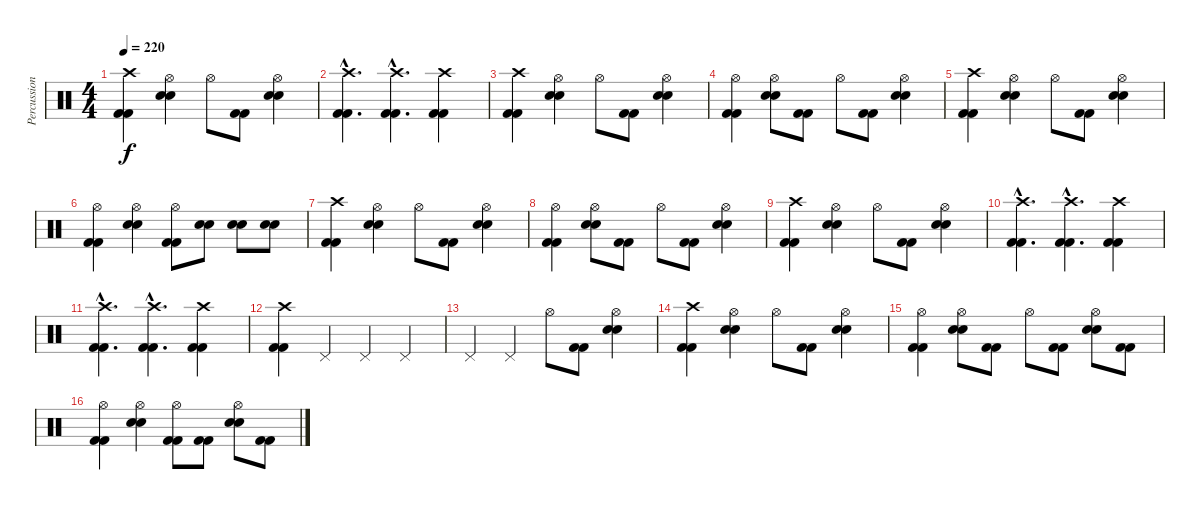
\track ("Percussion" "Percussion") {instrument percussion}
\staff {score}
\articulation defaults
\ts (4 4)
\tempo 220
\clef neutral
\ks c
("Crash high (hit)" "Kick (hit) 2" "Kick (hit) 2").4{dy f} ("Hi-Hat (open)" "Electric Snare (hit)" "Electric Snare (hit)").4 "Hi-Hat (open)".8 ("Kick (hit) 2" "Kick (hit) 2").8 ("Hi-Hat (open)" "Electric Snare (hit)" "Electric Snare (hit)").4 |
("Crash high (hit)"{hac} "Kick (hit) 2"{hac} "Kick (hit) 2"{hac}).4{d} ("Crash high (hit)"{hac} "Kick (hit) 2"{hac} "Kick (hit) 2"{hac}).4{d} ("Crash high (hit)" "Kick (hit) 2" "Kick (hit) 2").4 |
("Crash high (hit)" "Kick (hit) 2" "Kick (hit) 2").4 ("Hi-Hat (open)" "Electric Snare (hit)" "Electric Snare (hit)").4 "Hi-Hat (open)".8 ("Kick (hit) 2" "Kick (hit) 2").8 ("Hi-Hat (open)" "Electric Snare (hit)" "Electric Snare (hit)").4 |
("Hi-Hat (open)" "Kick (hit) 2" "Kick (hit) 2").4 ("Hi-Hat (open)" "Electric Snare (hit)" "Electric Snare (hit)").8 ("Kick (hit) 2" "Kick (hit) 2").8 "Hi-Hat (open)".8 ("Kick (hit) 2" "Kick (hit) 2").8 ("Hi-Hat (open)" "Electric Snare (hit)" "Electric Snare (hit)").4 |
("Crash high (hit)" "Kick (hit) 2" "Kick (hit) 2").4 ("Hi-Hat (open)" "Electric Snare (hit)" "Electric Snare (hit)").4 "Hi-Hat (open)".8 ("Kick (hit) 2" "Kick (hit) 2").8 ("Hi-Hat (open)" "Electric Snare (hit)" "Electric Snare (hit)").4 |
("Hi-Hat (open)" "Kick (hit) 2" "Kick (hit) 2").4 ("Hi-Hat (open)" "Electric Snare (hit)" "Electric Snare (hit)").4 ("Hi-Hat (open)" "Kick (hit) 2" "Kick (hit) 2").8 ("Electric Snare (hit)" "Electric Snare (hit)").8 ("Electric Snare (hit)" "Electric Snare (hit)").8 ("Electric Snare (hit)" "Electric Snare (hit)").8 |
("Crash high (hit)" "Kick (hit) 2" "Kick (hit) 2").4 ("Hi-Hat (open)" "Electric Snare (hit)" "Electric Snare (hit)").4 "Hi-Hat (open)".8 ("Kick (hit) 2" "Kick (hit) 2").8 ("Hi-Hat (open)" "Electric Snare (hit)" "Electric Snare (hit)").4 |
("Hi-Hat (open)" "Kick (hit) 2" "Kick (hit) 2").4 ("Hi-Hat (open)" "Electric Snare (hit)" "Electric Snare (hit)").8 ("Kick (hit) 2" "Kick (hit) 2").8 "Hi-Hat (open)".8 ("Kick (hit) 2" "Kick (hit) 2").8 ("Hi-Hat (open)" "Electric Snare (hit)" "Electric Snare (hit)").4 |
("Crash high (hit)" "Kick (hit) 2" "Kick (hit) 2").4 ("Hi-Hat (open)" "Electric Snare (hit)" "Electric Snare (hit)").4 "Hi-Hat (open)".8 ("Kick (hit) 2" "Kick (hit) 2").8 ("Hi-Hat (open)" "Electric Snare (hit)" "Electric Snare (hit)").4 |
("Crash high (hit)"{hac} "Kick (hit) 2"{hac} "Kick (hit) 2"{hac}).4{d} ("Crash high (hit)"{hac} "Kick (hit) 2"{hac} "Kick (hit) 2"{hac}).4{d} ("Crash high (hit)" "Kick (hit) 2" "Kick (hit) 2").4 |
("Crash high (hit)"{hac} "Kick (hit) 2"{hac} "Kick (hit) 2"{hac}).4{d} ("Crash high (hit)"{hac} "Kick (hit) 2"{hac} "Kick (hit) 2"{hac}).4{d} ("Crash high (hit)" "Kick (hit) 2" "Kick (hit) 2").4 |
("Crash high (hit)" "Kick (hit) 2" "Kick (hit) 2").4 "Pedal Hi-Hat (hit)".4 "Pedal Hi-Hat (hit)".4 "Pedal Hi-Hat (hit)".4 |
"Pedal Hi-Hat (hit)".4 "Pedal Hi-Hat (hit)".4 "Hi-Hat (open)".8 ("Kick (hit) 2" "Kick (hit) 2").8 ("Hi-Hat (open)" "Electric Snare (hit)" "Electric Snare (hit)").4 |
("Crash high (hit)" "Kick (hit) 2" "Kick (hit) 2").4 ("Hi-Hat (open)" "Electric Snare (hit)" "Electric Snare (hit)").4 "Hi-Hat (open)".8 ("Kick (hit) 2" "Kick (hit) 2").8 ("Hi-Hat (open)" "Electric Snare (hit)" "Electric Snare (hit)").4 |
("Hi-Hat (open)" "Kick (hit) 2" "Kick (hit) 2").4 ("Hi-Hat (open)" "Electric Snare (hit)" "Electric Snare (hit)").8 ("Kick (hit) 2" "Kick (hit) 2").8 "Hi-Hat (open)".8 ("Kick (hit) 2" "Kick (hit) 2").8 ("Hi-Hat (open)" "Electric Snare (hit)" "Electric Snare (hit)").8 ("Kick (hit) 2" "Kick (hit) 2").8 |
("Hi-Hat (open)" "Kick (hit) 2" "Kick (hit) 2").4 ("Hi-Hat (open)" "Electric Snare (hit)" "Electric Snare (hit)").4 ("Hi-Hat (open)" "Kick (hit) 2" "Kick (hit) 2").8 ("Kick (hit) 2" "Kick (hit) 2").8 ("Hi-Hat (open)" "Electric Snare (hit)" "Electric Snare (hit)").8 ("Kick (hit) 2" "Kick (hit) 2").8
